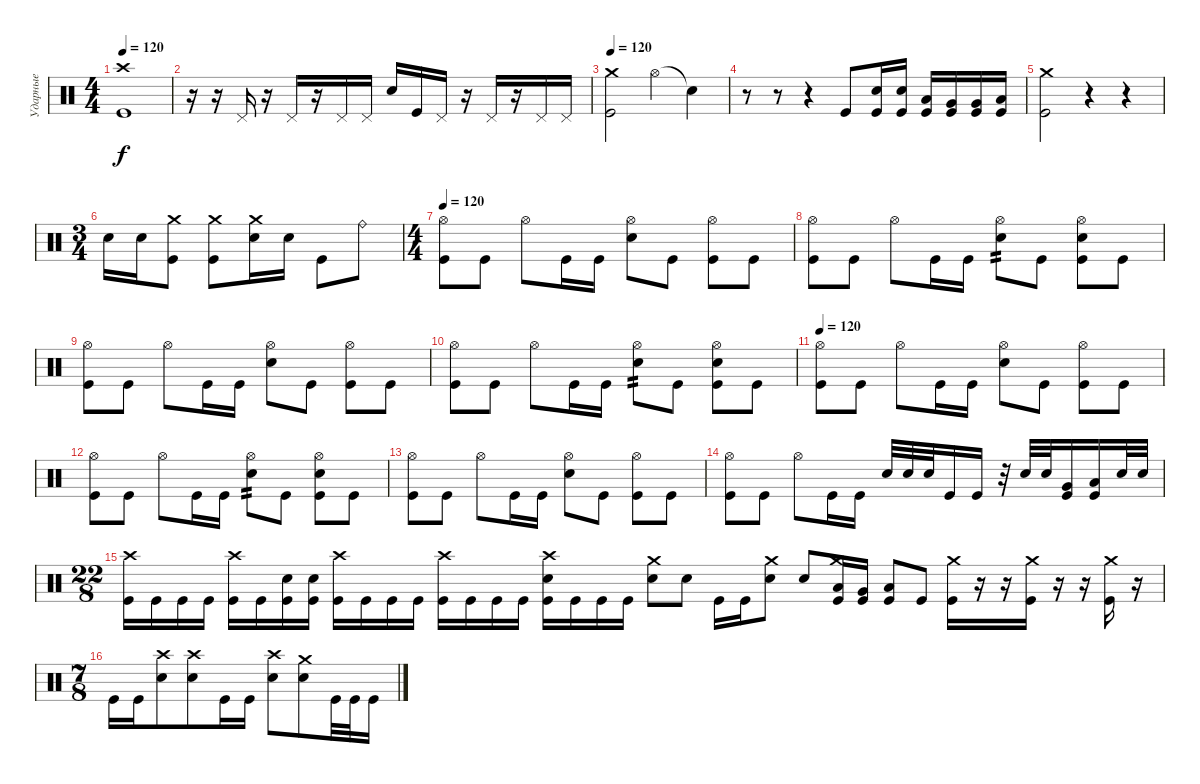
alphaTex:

\track ("Ударные" "Ударные") {instrument percussion}
\staff {score}
\articulation defaults
\ts (4 4)
\tempo 120
\clef neutral
\ks c
("Crash high (hit)" "Kick (hit)").1{dy f} |
r.16 r.16 "Pedal Hi-Hat (hit)".16 r.16 "Pedal Hi-Hat (hit)".16 r.16 "Pedal Hi-Hat (hit)".16 "Pedal Hi-Hat (hit)".16 "Electric Snare (hit)".16 "Kick (hit)".16 "Pedal Hi-Hat (hit)".16 r.16 "Pedal Hi-Hat (hit)".16 r.16 "Pedal Hi-Hat (hit)".16 "Pedal Hi-Hat (hit)".16 |
\tempo 120
("Crash medium (hit)" "Kick (hit)").2 "Hi-Hat (open)".4 "Snare (hit)"{t}.4 |
r.8 r.8 r.4 "Kick (hit)".8 ("Electric Snare (hit)" "Kick (hit)").16 ("Electric Snare (hit)" "Kick (hit)").16 ("Low Tom (hit)" "Kick (hit)").16 ("Very Low Tom (hit)" "Kick (hit)").16 ("Very Low Tom (hit)" "Kick (hit)").16 ("Low Floor Tom (hit)" "Kick (hit)").16 |
("Crash medium (hit)" "Kick (hit)").2 r.4 r.4 |
\ts (3 4)
"Electric Snare (hit)".16 "Electric Snare (hit)".16 ("Crash medium (hit)" "Kick (hit)").8 ("Crash medium (hit)" "Kick (hit)").8 ("Crash medium (hit)" "Electric Snare (hit)").16 "Electric Snare (hit)".16 "Kick (hit)".8 "Ride (bell)".8 |
\ts (4 4)
\tempo 120
("Hi-Hat (open)" "Kick (hit)").8 "Kick (hit)".8 "Hi-Hat (open)".8 "Kick (hit)".16 "Kick (hit)".16 ("Hi-Hat (open)" "Electric Snare (hit)").8 "Kick (hit)".8 ("Hi-Hat (open)" "Kick (hit)").8 "Kick (hit)".8 |
("Hi-Hat (open)" "Kick (hit)").8 "Kick (hit)".8 "Hi-Hat (open)".8 "Kick (hit)".16 "Kick (hit)".16 ("Hi-Hat (open)" "Electric Snare (hit)").8{tp 2} "Kick (hit)".8 ("Hi-Hat (open)" "Electric Snare (hit)" "Kick (hit)").8 "Kick (hit)".8 |
("Hi-Hat (open)" "Kick (hit)").8 "Kick (hit)".8 "Hi-Hat (open)".8 "Kick (hit)".16 "Kick (hit)".16 ("Hi-Hat (open)" "Electric Snare (hit)").8 "Kick (hit)".8 ("Hi-Hat (open)" "Kick (hit)").8 "Kick (hit)".8 |
("Hi-Hat (open)" "Kick (hit)").8 "Kick (hit)".8 "Hi-Hat (open)".8 "Kick (hit)".16 "Kick (hit)".16 ("Hi-Hat (open)" "Electric Snare (hit)").8{tp 2} "Kick (hit)".8 ("Hi-Hat (open)" "Electric Snare (hit)" "Kick (hit)").8 "Kick (hit)".8 |
\tempo 120
("Hi-Hat (open)" "Kick (hit)").8 "Kick (hit)".8 "Hi-Hat (open)".8 "Kick (hit)".16 "Kick (hit)".16 ("Hi-Hat (open)" "Electric Snare (hit)").8 "Kick (hit)".8 ("Hi-Hat (open)" "Kick (hit)").8 "Kick (hit)".8 |
("Hi-Hat (open)" "Kick (hit)").8 "Kick (hit)".8 "Hi-Hat (open)".8 "Kick (hit)".16 "Kick (hit)".16 ("Hi-Hat (open)" "Electric Snare (hit)").8{tp 2} "Kick (hit)".8 ("Hi-Hat (open)" "Electric Snare (hit)" "Kick (hit)").8 "Kick (hit)".8 |
("Hi-Hat (open)" "Kick (hit)").8 "Kick (hit)".8 "Hi-Hat (open)".8 "Kick (hit)".16 "Kick (hit)".16 ("Hi-Hat (open)" "Electric Snare (hit)").8 "Kick (hit)".8 ("Hi-Hat (open)" "Kick (hit)").8 "Kick (hit)".8 |
("Hi-Hat (open)" "Kick (hit)").8 "Kick (hit)".8 "Hi-Hat (open)".8 "Kick (hit)".16 "Kick (hit)".16 "Electric Snare (hit)".32 "Electric Snare (hit)".32 "Electric Snare (hit)".32 "Kick (hit)".16 "Kick (hit)".16 r.32 "Electric Snare (hit)".32 "Electric Snare (hit)".32 ("Very Low Tom (hit)" "Kick (hit)").16 ("Low Floor Tom (hit)" "Kick (hit)").16 "Electric Snare (hit)".32 "Electric Snare (hit)".32 |
\ts (22 8)
("Crash high (hit)" "Kick (hit)").16 "Kick (hit)".16 "Kick (hit)".16 "Kick (hit)".16 ("Crash high (hit)" "Kick (hit)").16 "Kick (hit)".16 ("Electric Snare (hit)" "Kick (hit)").16 ("Electric Snare (hit)" "Kick (hit)").16 ("Crash high (hit)" "Kick (hit)").16 "Kick (hit)".16 "Kick (hit)".16 "Kick (hit)".16 ("Crash high (hit)" "Kick (hit)").16 "Kick (hit)".16 "Kick (hit)".16 "Kick (hit)".16 ("Crash high (hit)" "Electric Snare (hit)" "Kick (hit)").16 "Kick (hit)".16 "Kick (hit)".16 "Kick (hit)".16 ("Crash medium (hit)" "Electric Snare (hit)").8 "Electric Snare (hit)".8 "Kick (hit)".16 "Kick (hit)".16 ("Crash medium (hit)" "Electric Snare (hit)").8 "Electric Snare (hit)".8 ("Crash medium (hit)" "Low Tom (hit)" "Kick (hit)").16 ("Very Low Tom (hit)" "Kick (hit)").16 ("Low Floor Tom (hit)" "Kick (hit)").8 "Kick (hit)".8 ("Crash medium (hit)" "Kick (hit)").16 r.16 r.16 ("Crash medium (hit)" "Kick (hit)").16 r.16 r.16 ("Crash medium (hit)" "Kick (hit)").16 r.16 |
\ts (7 8)
"Kick (hit)".16 "Kick (hit)".16 ("Crash high (hit)" "Electric Snare (hit)").8 ("Crash high (hit)" "Electric Snare (hit)").8 "Kick (hit)".16 "Kick (hit)".16 ("Crash high (hit)" "Electric Snare (hit)").8 ("Crash medium (hit)" "Electric Snare (hit)").8 "Kick (hit)".32 "Kick (hit)".32 "Kick (hit)".16
